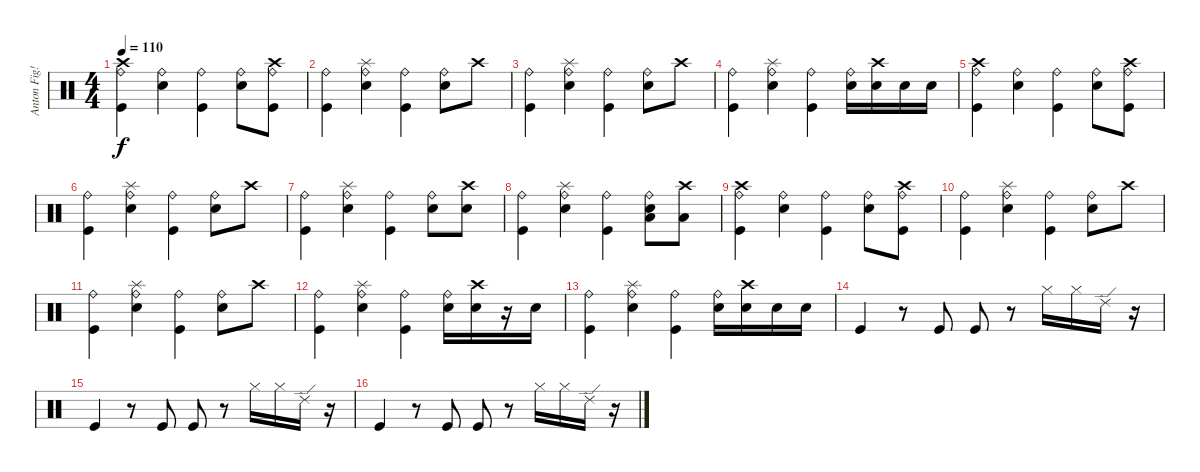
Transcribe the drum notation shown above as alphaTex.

\track ("Anton Fig!?!" "Anton Fig!") {instrument percussion}
\staff {score}
\articulation defaults
\ts (4 4)
\tempo 110
\clef neutral
\ks c
("Ride (bell)" "Crash high (hit)" "Kick (hit)").4{dy f} ("Ride (bell)" "Electric Snare (hit)").4 ("Ride (bell)" "Kick (hit)").4 ("Ride (bell)" "Electric Snare (hit)").8 ("Ride (bell)" "Crash high (hit)" "Kick (hit)").8 |
("Ride (bell)" "Kick (hit)").4 ("Ride (bell)" "Splash (hit)" "Electric Snare (hit)").4 ("Ride (bell)" "Kick (hit)").4 ("Ride (bell)" "Electric Snare (hit)").8 "Crash high (hit)".8 |
("Ride (bell)" "Kick (hit)").4 ("Ride (bell)" "Splash (hit)" "Electric Snare (hit)").4 ("Ride (bell)" "Kick (hit)").4 ("Ride (bell)" "Electric Snare (hit)").8 "Crash high (hit)".8 |
("Ride (bell)" "Kick (hit)").4 ("Ride (bell)" "Splash (hit)" "Electric Snare (hit)").4 ("Ride (bell)" "Kick (hit)").4 ("Ride (bell)" "Electric Snare (hit)").16 ("Crash high (hit)" "Electric Snare (hit)").16 "Electric Snare (hit)".16 "Electric Snare (hit)".16 |
("Ride (bell)" "Crash high (hit)" "Kick (hit)").4 ("Ride (bell)" "Electric Snare (hit)").4 ("Ride (bell)" "Kick (hit)").4 ("Ride (bell)" "Electric Snare (hit)").8 ("Ride (bell)" "Crash high (hit)" "Kick (hit)").8 |
("Ride (bell)" "Kick (hit)").4 ("Ride (bell)" "Splash (hit)" "Electric Snare (hit)").4 ("Ride (bell)" "Kick (hit)").4 ("Ride (bell)" "Electric Snare (hit)").8 "Crash high (hit)".8 |
("Ride (bell)" "Kick (hit)").4 ("Ride (bell)" "Splash (hit)" "Electric Snare (hit)").4 ("Ride (bell)" "Kick (hit)").4 ("Ride (bell)" "Electric Snare (hit)").8 ("Crash high (hit)" "Electric Snare (hit)").8 |
("Ride (bell)" "Kick (hit)").4 ("Ride (bell)" "Splash (hit)" "Electric Snare (hit)").4 ("Ride (bell)" "Kick (hit)").4 ("Ride (bell)" "Low Floor Tom (hit)" "Electric Snare (hit)").8 ("Crash high (hit)" "Low Floor Tom (hit)").8 |
("Ride (bell)" "Crash high (hit)" "Kick (hit)").4 ("Ride (bell)" "Electric Snare (hit)").4 ("Ride (bell)" "Kick (hit)").4 ("Ride (bell)" "Electric Snare (hit)").8 ("Ride (bell)" "Crash high (hit)" "Kick (hit)").8 |
("Ride (bell)" "Kick (hit)").4 ("Ride (bell)" "Splash (hit)" "Electric Snare (hit)").4 ("Ride (bell)" "Kick (hit)").4 ("Ride (bell)" "Electric Snare (hit)").8 "Crash high (hit)".8 |
("Ride (bell)" "Kick (hit)").4 ("Ride (bell)" "Splash (hit)" "Electric Snare (hit)").4 ("Ride (bell)" "Kick (hit)").4 ("Ride (bell)" "Electric Snare (hit)").8 "Crash high (hit)".8 |
("Ride (bell)" "Kick (hit)").4 ("Ride (bell)" "Splash (hit)" "Electric Snare (hit)").4 ("Ride (bell)" "Kick (hit)").4 ("Ride (bell)" "Electric Snare (hit)").16 ("Crash high (hit)" "Electric Snare (hit)").16 r.16 "Electric Snare (hit)".16 |
("Ride (bell)" "Kick (hit)").4 ("Ride (bell)" "Splash (hit)" "Electric Snare (hit)").4 ("Ride (bell)" "Kick (hit)").4 ("Ride (bell)" "Electric Snare (hit)").16 ("Crash high (hit)" "Electric Snare (hit)").16 "Electric Snare (hit)".16 "Electric Snare (hit)".16 |
"Kick (hit)".4 r.8 "Kick (hit)".8 "Kick (hit)".8 r.8 "Hi-Hat (closed)".16 "Hi-Hat (closed)".16 "Ride (edge) 2".16 r.16 |
"Kick (hit)".4 r.8 "Kick (hit)".8 "Kick (hit)".8 r.8 "Hi-Hat (closed)".16 "Hi-Hat (closed)".16 "Ride (edge) 2".16 r.16 |
"Kick (hit)".4 r.8 "Kick (hit)".8 "Kick (hit)".8 r.8 "Hi-Hat (closed)".16 "Hi-Hat (closed)".16 "Ride (edge) 2".16 r.16
